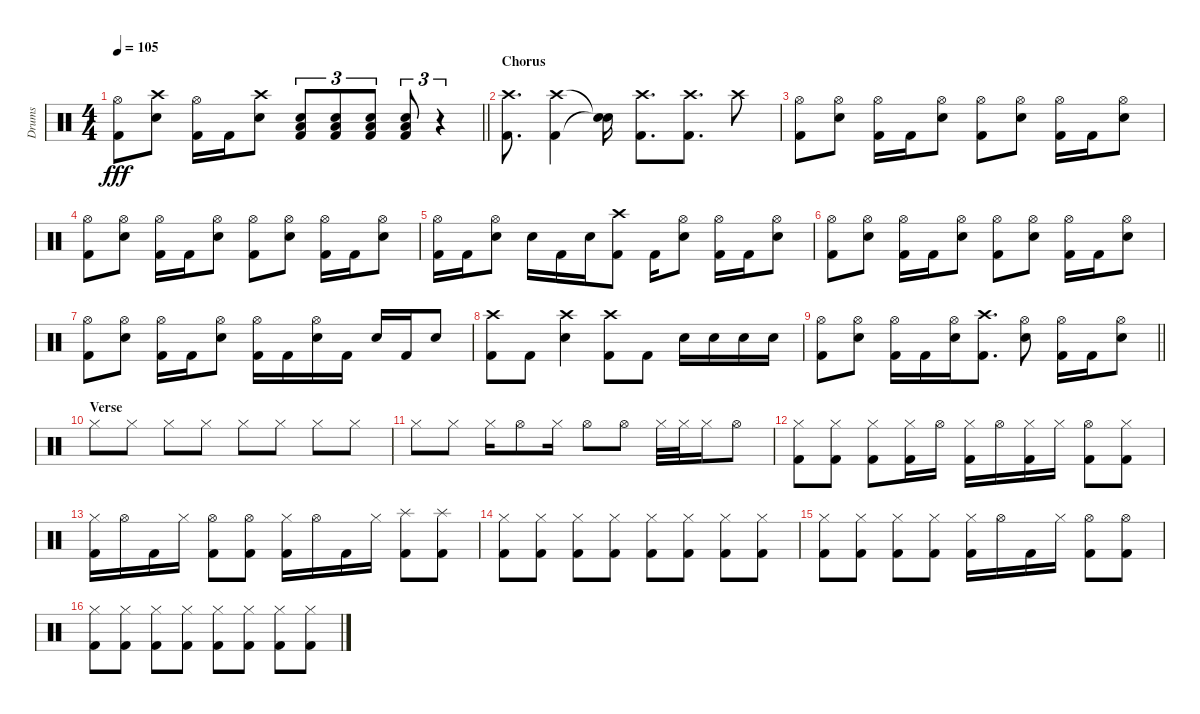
\track ("Drums" "Drums") {instrument percussion}
\staff {score}
\articulation defaults
\ts (4 4)
\tempo 105
\clef neutral
\barLineRight lightlight
\ks c
("Hi-Hat (open)" "Kick (hit) 2").8{dy fff} ("Crash high (hit)" "Electric Snare (hit)").8 ("Hi-Hat (open)" "Kick (hit) 2").16 "Kick (hit) 2".16 ("Crash high (hit)" "Electric Snare (hit)").8 ("Low Floor Tom (hit)" "Electric Snare (hit)" "Kick (hit) 2").8{tu (3 2)} ("Low Floor Tom (hit)" "Electric Snare (hit)" "Kick (hit) 2").8{tu (3 2)} ("Low Floor Tom (hit)" "Electric Snare (hit)" "Kick (hit) 2").8{tu (3 2)} ("Low Floor Tom (hit)" "Electric Snare (hit)" "Kick (hit) 2").8{tu (3 2)} r.4{tu (3 2)} |
\section ("" "Chorus")
("Crash high (hit)" "Kick (hit) 2").8{d} ("Crash high (hit)" "Kick (hit) 2").4 ("Snare (hit)"{t} "Snare (hit)"{t}).16 ("Crash high (hit)" "Kick (hit) 2").8{d} ("Crash high (hit)" "Kick (hit) 2").8{d} "Crash high (hit)".8 |
("Hi-Hat (open)" "Kick (hit) 2").8 ("Hi-Hat (open)" "Electric Snare (hit)").8 ("Hi-Hat (open)" "Kick (hit) 2").16 "Kick (hit) 2".16 ("Hi-Hat (open)" "Electric Snare (hit)").8 ("Hi-Hat (open)" "Kick (hit) 2").8 ("Hi-Hat (open)" "Electric Snare (hit)").8 ("Hi-Hat (open)" "Kick (hit) 2").16 "Kick (hit) 2".16 ("Hi-Hat (open)" "Electric Snare (hit)").8 |
("Hi-Hat (open)" "Kick (hit) 2").8 ("Hi-Hat (open)" "Electric Snare (hit)").8 ("Hi-Hat (open)" "Kick (hit) 2").16 "Kick (hit) 2".16 ("Hi-Hat (open)" "Electric Snare (hit)").8 ("Hi-Hat (open)" "Kick (hit) 2").8 ("Hi-Hat (open)" "Electric Snare (hit)").8 ("Hi-Hat (open)" "Kick (hit) 2").16 "Kick (hit) 2".16 ("Hi-Hat (open)" "Electric Snare (hit)").8 |
("Hi-Hat (open)" "Kick (hit) 2").16 "Kick (hit) 2".16 ("Hi-Hat (open)" "Electric Snare (hit)").8 "Electric Snare (hit)".16 "Kick (hit) 2".16 "Electric Snare (hit)".16 ("Crash high (hit)" "Kick (hit) 2").8 "Kick (hit) 2".16 ("Hi-Hat (open)" "Electric Snare (hit)").8 ("Hi-Hat (open)" "Kick (hit) 2").16 "Kick (hit) 2".16 ("Hi-Hat (open)" "Electric Snare (hit)").8 |
("Hi-Hat (open)" "Kick (hit) 2").8 ("Hi-Hat (open)" "Electric Snare (hit)").8 ("Hi-Hat (open)" "Kick (hit) 2").16 "Kick (hit) 2".16 ("Hi-Hat (open)" "Electric Snare (hit)").8 ("Hi-Hat (open)" "Kick (hit) 2").8 ("Hi-Hat (open)" "Electric Snare (hit)").8 ("Hi-Hat (open)" "Kick (hit) 2").16 "Kick (hit) 2".16 ("Hi-Hat (open)" "Electric Snare (hit)").8 |
("Hi-Hat (open)" "Kick (hit) 2").8 ("Hi-Hat (open)" "Electric Snare (hit)").8 ("Hi-Hat (open)" "Kick (hit) 2").16 "Kick (hit) 2".16 ("Hi-Hat (open)" "Electric Snare (hit)").8 ("Hi-Hat (open)" "Kick (hit) 2").16 "Kick (hit) 2".16 ("Hi-Hat (open)" "Electric Snare (hit)").16 "Kick (hit) 2".16 "Electric Snare (hit)".16 "Kick (hit) 2".16 "Electric Snare (hit)".8 |
("Crash high (hit)" "Kick (hit) 2").8 "Kick (hit) 2".8 ("Crash high (hit)" "Electric Snare (hit)").4 ("Crash high (hit)" "Kick (hit) 2").8 "Kick (hit) 2".8 "Electric Snare (hit)".16 "Electric Snare (hit)".16 "Electric Snare (hit)".16 "Electric Snare (hit)".16 |
\barLineRight lightlight
("Hi-Hat (open)" "Kick (hit) 2").8 ("Hi-Hat (open)" "Electric Snare (hit)").8 ("Hi-Hat (open)" "Kick (hit) 2").16 "Kick (hit) 2".16 ("Hi-Hat (open)" "Electric Snare (hit)").16 ("Crash high (hit)" "Kick (hit) 2").8{d} ("Hi-Hat (open)" "Electric Snare (hit)").8 ("Hi-Hat (open)" "Kick (hit) 2").16 "Kick (hit) 2".16 ("Hi-Hat (open)" "Electric Snare (hit)").8 |
\section ("" "Verse")
"Hi-Hat (closed)".8 "Hi-Hat (closed)".8 "Hi-Hat (closed)".8 "Hi-Hat (closed)".8 "Hi-Hat (closed)".8 "Hi-Hat (closed)".8 "Hi-Hat (closed)".8 "Hi-Hat (closed)".8 |
"Hi-Hat (closed)".8 "Hi-Hat (closed)".8 "Hi-Hat (closed)".16 "Hi-Hat (open)".8 "Hi-Hat (closed)".16 "Hi-Hat (open)".8 "Hi-Hat (open)".8 "Hi-Hat (closed)".32 "Hi-Hat (closed)".32 "Hi-Hat (closed)".16 "Hi-Hat (open)".8 |
("Hi-Hat (closed)" "Kick (hit) 2").8 ("Hi-Hat (closed)" "Kick (hit) 2").8 ("Hi-Hat (closed)" "Kick (hit) 2").8 ("Hi-Hat (closed)" "Kick (hit) 2").16 "Hi-Hat (open)".16 ("Hi-Hat (closed)" "Kick (hit) 2").16 "Hi-Hat (open)".16 ("Hi-Hat (closed)" "Kick (hit) 2").16 "Hi-Hat (closed)".16 ("Hi-Hat (open)" "Kick (hit) 2").8 ("Hi-Hat (closed)" "Kick (hit) 2").8 |
("Hi-Hat (closed)" "Kick (hit) 2").16 "Hi-Hat (open)".16 "Kick (hit) 2".16 "Hi-Hat (closed)".16 ("Hi-Hat (open)" "Kick (hit) 2").8 ("Hi-Hat (open)" "Kick (hit) 2").8 ("Hi-Hat (closed)" "Kick (hit) 2").16 "Hi-Hat (open)".16 "Kick (hit) 2".16 "Hi-Hat (closed)".16 ("Splash (hit)" "Kick (hit) 2").8 ("Splash (hit)" "Kick (hit) 2").8 |
("Hi-Hat (closed)" "Kick (hit) 2").8 ("Hi-Hat (closed)" "Kick (hit) 2").8 ("Hi-Hat (closed)" "Kick (hit) 2").8 ("Hi-Hat (closed)" "Kick (hit) 2").8 ("Hi-Hat (closed)" "Kick (hit) 2").8 ("Hi-Hat (closed)" "Kick (hit) 2").8 ("Hi-Hat (closed)" "Kick (hit) 2").8 ("Hi-Hat (closed)" "Kick (hit) 2").8 |
("Hi-Hat (closed)" "Kick (hit) 2").8 ("Hi-Hat (closed)" "Kick (hit) 2").8 ("Hi-Hat (closed)" "Kick (hit) 2").8 ("Hi-Hat (closed)" "Kick (hit) 2").8 ("Hi-Hat (closed)" "Kick (hit) 2").16 "Hi-Hat (open)".16 "Kick (hit) 2".16 "Hi-Hat (closed)".16 ("Hi-Hat (open)" "Kick (hit) 2").8 ("Hi-Hat (open)" "Kick (hit) 2").8 |
("Hi-Hat (closed)" "Kick (hit) 2").8 ("Hi-Hat (closed)" "Kick (hit) 2").8 ("Hi-Hat (closed)" "Kick (hit) 2").8 ("Hi-Hat (closed)" "Kick (hit) 2").8 ("Hi-Hat (closed)" "Kick (hit) 2").8 ("Hi-Hat (closed)" "Kick (hit) 2").8 ("Hi-Hat (closed)" "Kick (hit) 2").8 ("Hi-Hat (closed)" "Kick (hit) 2").8
